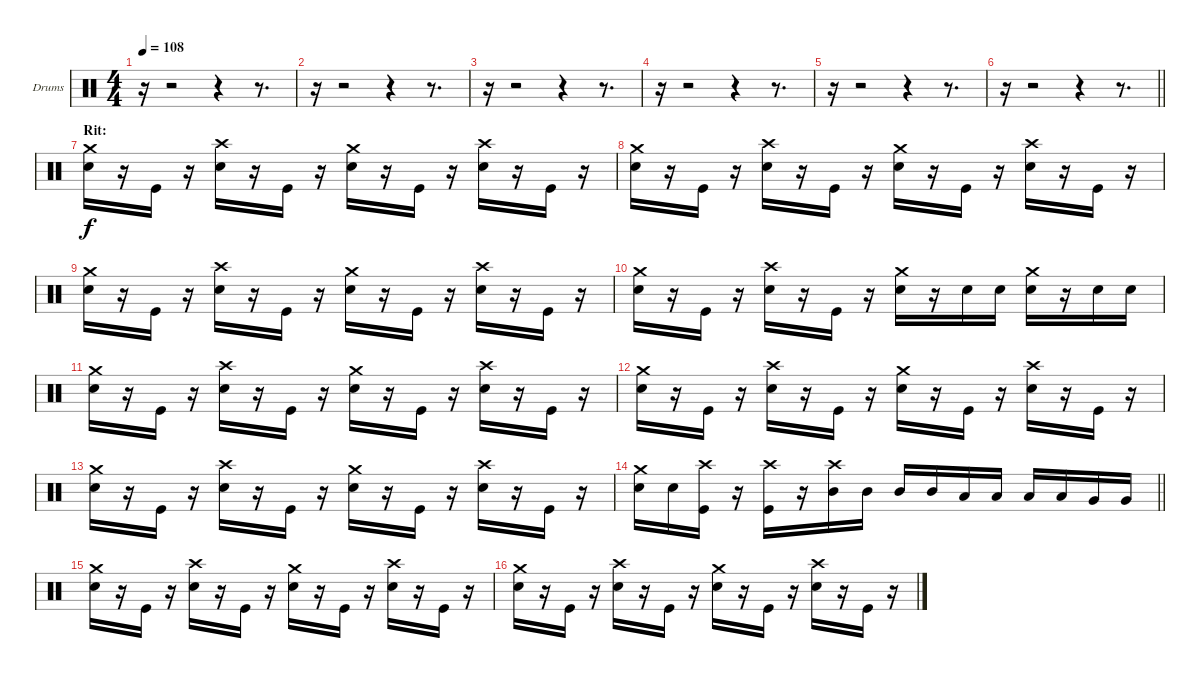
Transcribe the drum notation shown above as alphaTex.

\bracketExtendMode groupsimilarinstruments
\firstSystemTrackNameOrientation horizontal
\otherSystemsTrackNameOrientation horizontal
\track ("Drumkit" "Drums") {instrument percussion}
\staff {score}
\articulation defaults
\ts (4 4)
\tempo 108
\clef neutral
\ks c
r.16{dy f} r.2 r.4 r.8{d} |
r.16 r.2 r.4 r.8{d} |
r.16 r.2 r.4 r.8{d} |
r.16 r.2 r.4 r.8{d} |
r.16 r.2 r.4 r.8{d} |
\barLineRight lightlight
r.16 r.2 r.4 r.8{d} |
\section ("" "Rit:")
("Snare (hit) 2" "Crash medium (hit)").16 r.16 "Kick (hit)".16 r.16 ("Snare (hit) 2" "Crash high (hit)").16 r.16 "Kick (hit)".16 r.16 ("Snare (hit) 2" "Crash medium (hit)").16 r.16 "Kick (hit)".16 r.16 ("Snare (hit) 2" "Crash high (hit)").16 r.16 "Kick (hit)".16 r.16 |
("Snare (hit) 2" "Crash medium (hit)").16 r.16 "Kick (hit)".16 r.16 ("Snare (hit) 2" "Crash high (hit)").16 r.16 "Kick (hit)".16 r.16 ("Snare (hit) 2" "Crash medium (hit)").16 r.16 "Kick (hit)".16 r.16 ("Snare (hit) 2" "Crash high (hit)").16 r.16 "Kick (hit)".16 r.16 |
("Snare (hit) 2" "Crash medium (hit)").16 r.16 "Kick (hit)".16 r.16 ("Snare (hit) 2" "Crash high (hit)").16 r.16 "Kick (hit)".16 r.16 ("Snare (hit) 2" "Crash medium (hit)").16 r.16 "Kick (hit)".16 r.16 ("Snare (hit) 2" "Crash high (hit)").16 r.16 "Kick (hit)".16 r.16 |
("Snare (hit) 2" "Crash medium (hit)").16 r.16 "Kick (hit)".16 r.16 ("Snare (hit) 2" "Crash high (hit)").16 r.16 "Kick (hit)".16 r.16 ("Snare (hit) 2" "Crash medium (hit)").16 r.16 "Snare (hit) 2".16 "Snare (hit) 2".16 ("Snare (hit) 2" "Crash medium (hit)").16 r.16 "Snare (hit) 2".16 "Snare (hit) 2".16 |
("Snare (hit) 2" "Crash medium (hit)").16 r.16 "Kick (hit)".16 r.16 ("Snare (hit) 2" "Crash high (hit)").16 r.16 "Kick (hit)".16 r.16 ("Snare (hit) 2" "Crash medium (hit)").16 r.16 "Kick (hit)".16 r.16 ("Snare (hit) 2" "Crash high (hit)").16 r.16 "Kick (hit)".16 r.16 |
("Snare (hit) 2" "Crash medium (hit)").16 r.16 "Kick (hit)".16 r.16 ("Snare (hit) 2" "Crash high (hit)").16 r.16 "Kick (hit)".16 r.16 ("Snare (hit) 2" "Crash medium (hit)").16 r.16 "Kick (hit)".16 r.16 ("Snare (hit) 2" "Crash high (hit)").16 r.16 "Kick (hit)".16 r.16 |
("Snare (hit) 2" "Crash medium (hit)").16 r.16 "Kick (hit)".16 r.16 ("Snare (hit) 2" "Crash high (hit)").16 r.16 "Kick (hit)".16 r.16 ("Snare (hit) 2" "Crash medium (hit)").16 r.16 "Kick (hit)".16 r.16 ("Snare (hit) 2" "Crash high (hit)").16 r.16 "Kick (hit)".16 r.16 |
\barLineRight lightlight
("Snare (hit) 2" "Crash medium (hit)").16 "Snare (hit) 2".16 ("Kick (hit)" "Crash high (hit)").16 r.16 ("Kick (hit)" "Crash high (hit)").16 r.16 ("Mid Tom (hit)" "Crash high (hit)").16 "Mid Tom (hit)".16 "Mid Tom (hit)".16 "Mid Tom (hit)".16 "Low Tom (hit)".16 "Low Tom (hit)".16 "Low Tom (hit)".16 "Low Tom (hit)".16 "Very Low Tom (hit)".16 "Very Low Tom (hit)".16 |
("Snare (hit) 2" "Crash medium (hit)").16 r.16 "Kick (hit)".16 r.16 ("Snare (hit) 2" "Crash high (hit)").16 r.16 "Kick (hit)".16 r.16 ("Snare (hit) 2" "Crash medium (hit)").16 r.16 "Kick (hit)".16 r.16 ("Snare (hit) 2" "Crash high (hit)").16 r.16 "Kick (hit)".16 r.16 |
("Snare (hit) 2" "Crash medium (hit)").16 r.16 "Kick (hit)".16 r.16 ("Snare (hit) 2" "Crash high (hit)").16 r.16 "Kick (hit)".16 r.16 ("Snare (hit) 2" "Crash medium (hit)").16 r.16 "Kick (hit)".16 r.16 ("Snare (hit) 2" "Crash high (hit)").16 r.16 "Kick (hit)".16 r.16
